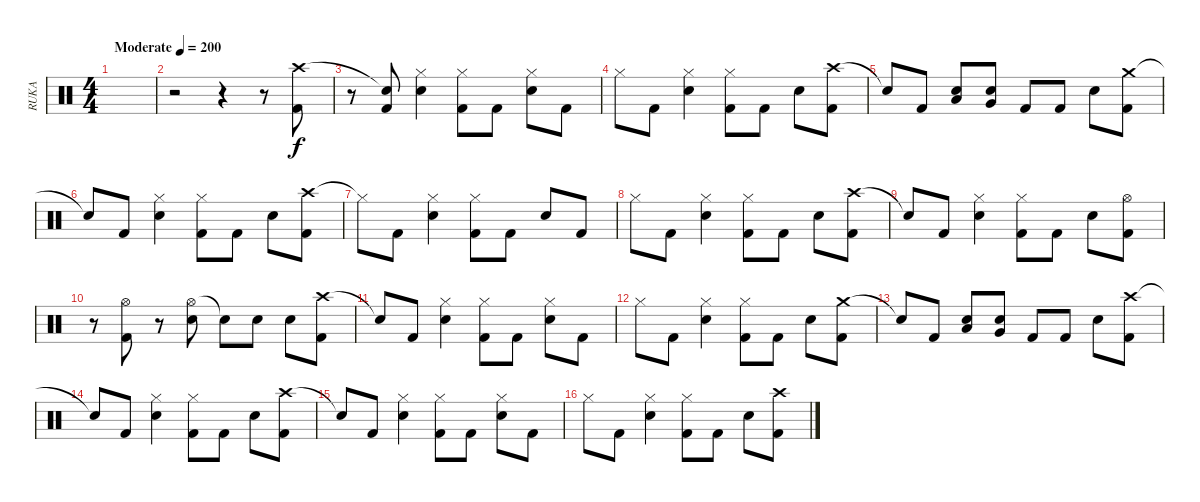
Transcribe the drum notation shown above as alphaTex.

\track ("RUKA" "RUKA") {instrument percussion}
\staff {score}
\articulation defaults
\ts (4 4)
\tempo (200 "Moderate")
\clef neutral
\ks c
|
r.2 r.4 r.8 ("Crash high (hit)" "Kick (hit) 2").8 |
r.8 ("Snare (hit)"{t} "Kick (hit) 2").8 ("Hi-Hat (closed)" "Snare (hit) 2").4 ("Hi-Hat (closed)" "Kick (hit) 2").8 "Kick (hit) 2".8 ("Hi-Hat (closed)" "Snare (hit) 2").8 "Kick (hit) 2".8 |
"Hi-Hat (closed)".8 "Kick (hit) 2".8 ("Hi-Hat (closed)" "Snare (hit) 2").4 ("Hi-Hat (closed)" "Kick (hit) 2").8 "Kick (hit) 2".8 "Snare (hit) 2".8 ("Crash high (hit)" "Kick (hit) 2").8 |
"Snare (hit)"{t}.8 "Kick (hit) 2".8 ("Snare (hit) 2" "Low Tom (hit)").8 ("Snare (hit) 2" "Very Low Tom (hit)").8 "Kick (hit) 2".8 "Kick (hit) 2".8 "Snare (hit) 2".8 ("Crash medium (hit)" "Kick (hit) 2").8 |
"Snare (hit)"{t}.8 "Kick (hit) 2".8 ("Hi-Hat (closed)" "Snare (hit) 2").4 ("Hi-Hat (closed)" "Kick (hit) 2").8 "Kick (hit) 2".8 "Snare (hit) 2".8 ("Crash high (hit)" "Kick (hit) 2").8 |
"Hi-Hat (closed)"{t}.8 "Kick (hit) 2".8 ("Hi-Hat (closed)" "Snare (hit) 2").4 ("Hi-Hat (closed)" "Kick (hit) 2").8 "Kick (hit) 2".8 "Snare (hit) 2".8 "Kick (hit) 2".8 |
"Hi-Hat (closed)".8 "Kick (hit) 2".8 ("Hi-Hat (closed)" "Snare (hit) 2").4 ("Hi-Hat (closed)" "Kick (hit) 2").8 "Kick (hit) 2".8 "Snare (hit) 2".8 ("Crash high (hit)" "Kick (hit) 2").8 |
"Snare (hit)"{t}.8 "Kick (hit) 2".8 ("Hi-Hat (closed)" "Snare (hit) 2").4 ("Hi-Hat (closed)" "Kick (hit) 2").8 "Kick (hit) 2".8 "Snare (hit) 2".8 ("Hi-Hat (open)" "Kick (hit) 2").8 |
r.8 ("Hi-Hat (open)" "Kick (hit) 2").8 r.8 ("Hi-Hat (open)" "Snare (hit) 2").8 "Snare (hit)"{t}.8 "Snare (hit) 2".8 "Snare (hit) 2".8 ("Crash high (hit)" "Kick (hit) 2").8 |
"Snare (hit)"{t}.8 "Kick (hit) 2".8 ("Hi-Hat (closed)" "Snare (hit) 2").4 ("Hi-Hat (closed)" "Kick (hit) 2").8 "Kick (hit) 2".8 ("Hi-Hat (closed)" "Snare (hit) 2").8 "Kick (hit) 2".8 |
"Hi-Hat (closed)".8 "Kick (hit) 2".8 ("Hi-Hat (closed)" "Snare (hit) 2").4 ("Hi-Hat (closed)" "Kick (hit) 2").8 "Kick (hit) 2".8 "Snare (hit) 2".8 ("Crash medium (hit)" "Kick (hit) 2").8 |
"Snare (hit)"{t}.8 "Kick (hit) 2".8 ("Snare (hit) 2" "Low Tom (hit)").8 ("Snare (hit) 2" "Very Low Tom (hit)").8 "Kick (hit) 2".8 "Kick (hit) 2".8 "Snare (hit) 2".8 ("Crash high (hit)" "Kick (hit) 2").8 |
"Snare (hit)"{t}.8 "Kick (hit) 2".8 ("Hi-Hat (closed)" "Snare (hit) 2").4 ("Hi-Hat (closed)" "Kick (hit) 2").8 "Kick (hit) 2".8 "Snare (hit) 2".8 ("Crash high (hit)" "Kick (hit) 2").8 |
"Snare (hit)"{t}.8 "Kick (hit) 2".8 ("Hi-Hat (closed)" "Snare (hit) 2").4 ("Hi-Hat (closed)" "Kick (hit) 2").8 "Kick (hit) 2".8 ("Hi-Hat (closed)" "Snare (hit) 2").8 "Kick (hit) 2".8 |
"Hi-Hat (closed)".8 "Kick (hit) 2".8 ("Hi-Hat (closed)" "Snare (hit) 2").4 ("Hi-Hat (closed)" "Kick (hit) 2").8 "Kick (hit) 2".8 "Snare (hit) 2".8 ("Crash high (hit)" "Kick (hit) 2").8
